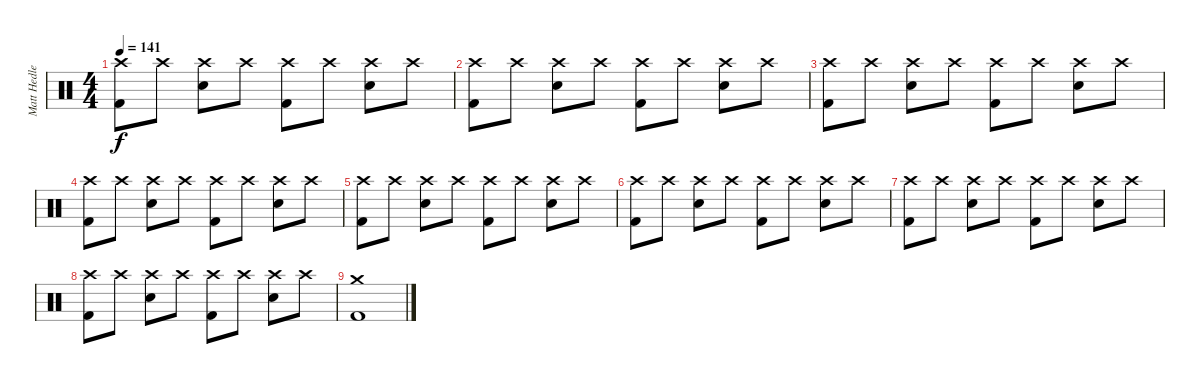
\track ("Matt Hedlers" "Matt Hedle") {instrument percussion}
\staff {score}
\articulation defaults
\ts (4 4)
\tempo 141
\clef neutral
\ks c
("Crash high (hit)" "Kick (hit) 2").8{dy f} "Crash high (hit)".8 ("Crash high (hit)" "Snare (hit) 2").8 "Crash high (hit)".8 ("Crash high (hit)" "Kick (hit) 2").8 "Crash high (hit)".8 ("Crash high (hit)" "Snare (hit) 2").8 "Crash high (hit)".8 |
("Crash high (hit)" "Kick (hit) 2").8 "Crash high (hit)".8 ("Crash high (hit)" "Snare (hit) 2").8 "Crash high (hit)".8 ("Crash high (hit)" "Kick (hit) 2").8 "Crash high (hit)".8 ("Crash high (hit)" "Snare (hit) 2").8 "Crash high (hit)".8 |
("Crash high (hit)" "Kick (hit) 2").8 "Crash high (hit)".8 ("Crash high (hit)" "Snare (hit) 2").8 "Crash high (hit)".8 ("Crash high (hit)" "Kick (hit) 2").8 "Crash high (hit)".8 ("Crash high (hit)" "Snare (hit) 2").8 "Crash high (hit)".8 |
("Crash high (hit)" "Kick (hit) 2").8 "Crash high (hit)".8 ("Crash high (hit)" "Snare (hit) 2").8 "Crash high (hit)".8 ("Crash high (hit)" "Kick (hit) 2").8 "Crash high (hit)".8 ("Crash high (hit)" "Snare (hit) 2").8 "Crash high (hit)".8 |
("Crash high (hit)" "Kick (hit) 2").8 "Crash high (hit)".8 ("Crash high (hit)" "Snare (hit) 2").8 "Crash high (hit)".8 ("Crash high (hit)" "Kick (hit) 2").8 "Crash high (hit)".8 ("Crash high (hit)" "Snare (hit) 2").8 "Crash high (hit)".8 |
("Crash high (hit)" "Kick (hit) 2").8 "Crash high (hit)".8 ("Crash high (hit)" "Snare (hit) 2").8 "Crash high (hit)".8 ("Crash high (hit)" "Kick (hit) 2").8 "Crash high (hit)".8 ("Crash high (hit)" "Snare (hit) 2").8 "Crash high (hit)".8 |
("Crash high (hit)" "Kick (hit) 2").8 "Crash high (hit)".8 ("Crash high (hit)" "Snare (hit) 2").8 "Crash high (hit)".8 ("Crash high (hit)" "Kick (hit) 2").8 "Crash high (hit)".8 ("Crash high (hit)" "Snare (hit) 2").8 "Crash high (hit)".8 |
("Crash high (hit)" "Kick (hit) 2").8 "Crash high (hit)".8 ("Crash high (hit)" "Snare (hit) 2").8 "Crash high (hit)".8 ("Crash high (hit)" "Kick (hit) 2").8 "Crash high (hit)".8 ("Crash high (hit)" "Snare (hit) 2").8 "Crash high (hit)".8 |
("Crash medium (hit)" "Kick (hit) 2").1
